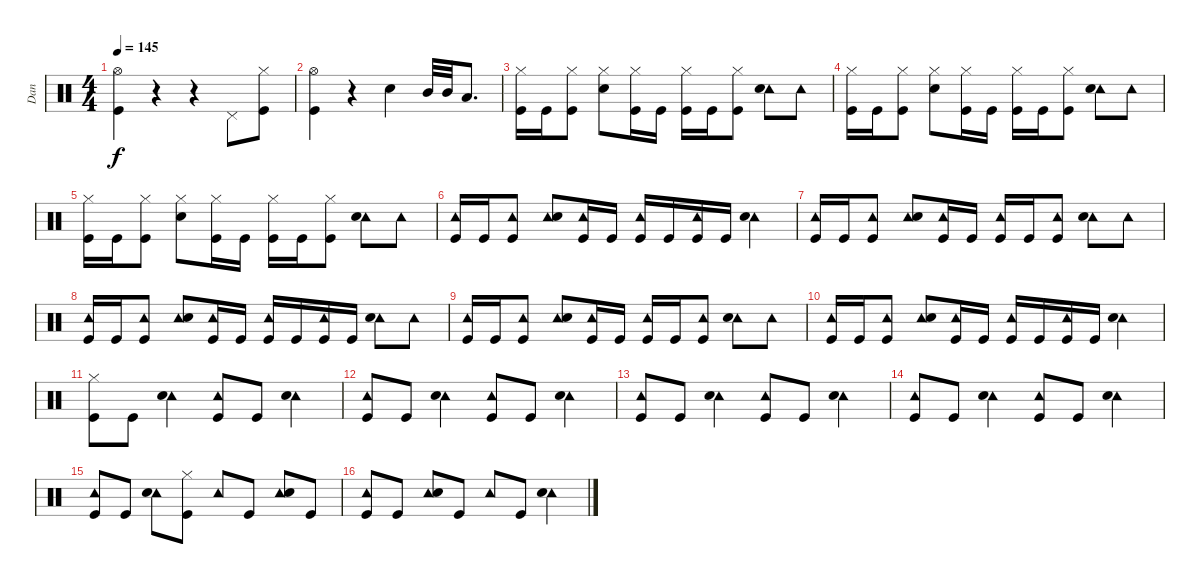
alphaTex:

\track ("Dan" "Dan") {instrument percussion}
\staff {score}
\articulation defaults
\ts (4 4)
\tempo 145
\clef neutral
\ks c
("Hi-Hat (open)" "Kick (hit)").4{dy f} r.4 r.4 "Pedal Hi-Hat (hit)".8 ("Hi-Hat (closed)" "Kick (hit)").8 |
("Hi-Hat (open)" "Kick (hit)").4 r.4 "Snare (hit) 2".4 "Mid Tom (hit)".32 "Mid Tom (hit)".32 "Low Tom (hit)".8{d} |
("Hi-Hat (closed)" "Kick (hit)").16 "Kick (hit)".16 ("Hi-Hat (closed)" "Kick (hit)").8 ("Hi-Hat (closed)" "Snare (hit) 2").8 ("Hi-Hat (closed)" "Kick (hit)").16 "Kick (hit)".16 ("Hi-Hat (closed)" "Kick (hit)").16 "Kick (hit)".16 ("Hi-Hat (closed)" "Kick (hit)").8 ("Tambourine (hit)" "Snare (hit) 2").8 "Tambourine (hit)".8 |
("Hi-Hat (closed)" "Kick (hit)").16 "Kick (hit)".16 ("Hi-Hat (closed)" "Kick (hit)").8 ("Hi-Hat (closed)" "Snare (hit) 2").8 ("Hi-Hat (closed)" "Kick (hit)").16 "Kick (hit)".16 ("Hi-Hat (closed)" "Kick (hit)").16 "Kick (hit)".16 ("Hi-Hat (closed)" "Kick (hit)").8 ("Tambourine (hit)" "Snare (hit) 2").8 "Tambourine (hit)".8 |
("Hi-Hat (closed)" "Kick (hit)").16 "Kick (hit)".16 ("Hi-Hat (closed)" "Kick (hit)").8 ("Hi-Hat (closed)" "Snare (hit) 2").8 ("Hi-Hat (closed)" "Kick (hit)").16 "Kick (hit)".16 ("Hi-Hat (closed)" "Kick (hit)").16 "Kick (hit)".16 ("Hi-Hat (closed)" "Kick (hit)").8 ("Tambourine (hit)" "Snare (hit) 2").8 "Tambourine (hit)".8 |
("Tambourine (hit)" "Kick (hit)").16 "Kick (hit)".16 ("Tambourine (hit)" "Kick (hit)").8 ("Tambourine (hit)" "Snare (hit) 2").8 ("Tambourine (hit)" "Kick (hit)").16 "Kick (hit)".16 ("Tambourine (hit)" "Kick (hit)").16 "Kick (hit)".16 ("Tambourine (hit)" "Kick (hit)").16 "Kick (hit)".16 ("Tambourine (hit)" "Snare (hit) 2").4 |
("Tambourine (hit)" "Kick (hit)").16 "Kick (hit)".16 ("Tambourine (hit)" "Kick (hit)").8 ("Tambourine (hit)" "Snare (hit) 2").8 ("Tambourine (hit)" "Kick (hit)").16 "Kick (hit)".16 ("Tambourine (hit)" "Kick (hit)").16 "Kick (hit)".16 ("Tambourine (hit)" "Kick (hit)").8 ("Tambourine (hit)" "Snare (hit) 2").8 "Tambourine (hit)".8 |
("Tambourine (hit)" "Kick (hit)").16 "Kick (hit)".16 ("Tambourine (hit)" "Kick (hit)").8 ("Tambourine (hit)" "Snare (hit) 2").8 ("Tambourine (hit)" "Kick (hit)").16 "Kick (hit)".16 ("Tambourine (hit)" "Kick (hit)").16 "Kick (hit)".16 ("Tambourine (hit)" "Kick (hit)").16 "Kick (hit)".16 ("Tambourine (hit)" "Snare (hit) 2").8 "Tambourine (hit)".8 |
("Tambourine (hit)" "Kick (hit)").16 "Kick (hit)".16 ("Tambourine (hit)" "Kick (hit)").8 ("Tambourine (hit)" "Snare (hit) 2").8 ("Tambourine (hit)" "Kick (hit)").16 "Kick (hit)".16 ("Tambourine (hit)" "Kick (hit)").16 "Kick (hit)".16 ("Tambourine (hit)" "Kick (hit)").8 ("Tambourine (hit)" "Snare (hit) 2").8 "Tambourine (hit)".8 |
("Tambourine (hit)" "Kick (hit)").16 "Kick (hit)".16 ("Tambourine (hit)" "Kick (hit)").8 ("Tambourine (hit)" "Snare (hit) 2").8 ("Tambourine (hit)" "Kick (hit)").16 "Kick (hit)".16 ("Tambourine (hit)" "Kick (hit)").16 "Kick (hit)".16 ("Tambourine (hit)" "Kick (hit)").16 "Kick (hit)".16 ("Tambourine (hit)" "Snare (hit) 2").4 |
("Hi-Hat (closed)" "Kick (hit)").8 "Kick (hit)".8 ("Tambourine (hit)" "Snare (hit) 2").4 ("Tambourine (hit)" "Kick (hit)").8 "Kick (hit)".8 ("Tambourine (hit)" "Snare (hit) 2").4 |
("Tambourine (hit)" "Kick (hit)").8 "Kick (hit)".8 ("Tambourine (hit)" "Snare (hit) 2").4 ("Tambourine (hit)" "Kick (hit)").8 "Kick (hit)".8 ("Tambourine (hit)" "Snare (hit) 2").4 |
("Tambourine (hit)" "Kick (hit)").8 "Kick (hit)".8 ("Tambourine (hit)" "Snare (hit) 2").4 ("Tambourine (hit)" "Kick (hit)").8 "Kick (hit)".8 ("Tambourine (hit)" "Snare (hit) 2").4 |
("Tambourine (hit)" "Kick (hit)").8 "Kick (hit)".8 ("Tambourine (hit)" "Snare (hit) 2").4 ("Tambourine (hit)" "Kick (hit)").8 "Kick (hit)".8 ("Tambourine (hit)" "Snare (hit) 2").4 |
("Tambourine (hit)" "Kick (hit)").8 "Kick (hit)".8 ("Tambourine (hit)" "Snare (hit) 2").8 ("Hi-Hat (closed)" "Kick (hit)").8 "Tambourine (hit)".8 "Kick (hit)".8 ("Tambourine (hit)" "Snare (hit) 2").8 "Kick (hit)".8 |
("Tambourine (hit)" "Kick (hit)").8 "Kick (hit)".8 ("Tambourine (hit)" "Snare (hit) 2").8 "Kick (hit)".8 "Tambourine (hit)".8 "Kick (hit)".8 ("Tambourine (hit)" "Snare (hit) 2").4
